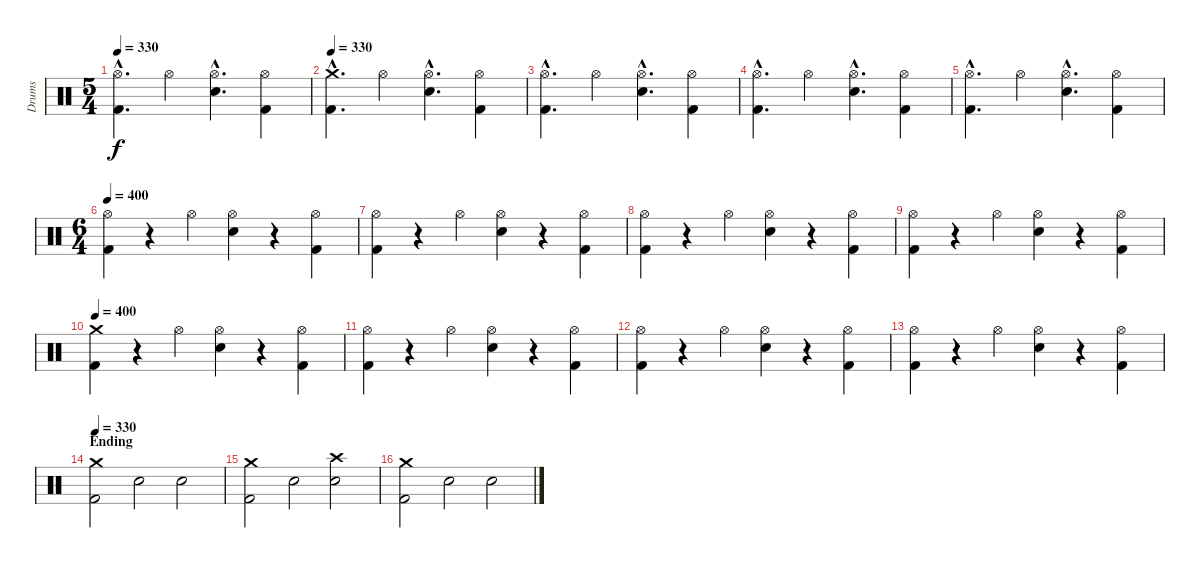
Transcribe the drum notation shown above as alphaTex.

\track ("Drums" "Drums") {instrument percussion}
\staff {score}
\articulation defaults
\ts (5 4)
\tempo 330
\clef neutral
\ks c
("Hi-Hat (open)"{hac} "Kick (hit) 2"{hac}).4{d dy f} "Hi-Hat (open)".4 ("Hi-Hat (open)"{hac} "Electric Snare (hit)"{hac}).4{d} ("Hi-Hat (open)" "Kick (hit) 2").4 |
\tempo 330
("Crash medium (hit)"{hac} "Kick (hit) 2"{hac}).4{d} "Hi-Hat (open)".4 ("Hi-Hat (open)"{hac} "Electric Snare (hit)"{hac}).4{d} ("Hi-Hat (open)" "Kick (hit) 2").4 |
("Hi-Hat (open)"{hac} "Kick (hit) 2"{hac}).4{d} "Hi-Hat (open)".4 ("Hi-Hat (open)"{hac} "Electric Snare (hit)"{hac}).4{d} ("Hi-Hat (open)" "Kick (hit) 2").4 |
("Hi-Hat (open)"{hac} "Kick (hit) 2"{hac}).4{d} "Hi-Hat (open)".4 ("Hi-Hat (open)"{hac} "Electric Snare (hit)"{hac}).4{d} ("Hi-Hat (open)" "Kick (hit) 2").4 |
("Hi-Hat (open)"{hac} "Kick (hit) 2"{hac}).4{d} "Hi-Hat (open)".4 ("Hi-Hat (open)"{hac} "Electric Snare (hit)"{hac}).4{d} ("Hi-Hat (open)" "Kick (hit) 2").4 |
\ts (6 4)
\tempo 400
("Hi-Hat (open)" "Kick (hit) 2").4 r.4 "Hi-Hat (open)".4 ("Hi-Hat (open)" "Electric Snare (hit)").4 r.4 ("Hi-Hat (open)" "Kick (hit) 2").4 |
("Hi-Hat (open)" "Kick (hit) 2").4 r.4 "Hi-Hat (open)".4 ("Hi-Hat (open)" "Electric Snare (hit)").4 r.4 ("Hi-Hat (open)" "Kick (hit) 2").4 |
("Hi-Hat (open)" "Kick (hit) 2").4 r.4 "Hi-Hat (open)".4 ("Hi-Hat (open)" "Electric Snare (hit)").4 r.4 ("Hi-Hat (open)" "Kick (hit) 2").4 |
("Hi-Hat (open)" "Kick (hit) 2").4 r.4 "Hi-Hat (open)".4 ("Hi-Hat (open)" "Electric Snare (hit)").4 r.4 ("Hi-Hat (open)" "Kick (hit) 2").4 |
\tempo 400
("Crash medium (hit)" "Kick (hit) 2").4 r.4 "Hi-Hat (open)".4 ("Hi-Hat (open)" "Electric Snare (hit)").4 r.4 ("Hi-Hat (open)" "Kick (hit) 2").4 |
("Hi-Hat (open)" "Kick (hit) 2").4 r.4 "Hi-Hat (open)".4 ("Hi-Hat (open)" "Electric Snare (hit)").4 r.4 ("Hi-Hat (open)" "Kick (hit) 2").4 |
("Hi-Hat (open)" "Kick (hit) 2").4 r.4 "Hi-Hat (open)".4 ("Hi-Hat (open)" "Electric Snare (hit)").4 r.4 ("Hi-Hat (open)" "Kick (hit) 2").4 |
("Hi-Hat (open)" "Kick (hit) 2").4 r.4 "Hi-Hat (open)".4 ("Hi-Hat (open)" "Electric Snare (hit)").4 r.4 ("Hi-Hat (open)" "Kick (hit) 2").4 |
\section ("" "Ending")
\tempo 330
("Crash medium (hit)" "Kick (hit) 2").2 "Electric Snare (hit)".2 "Electric Snare (hit)".2 |
("Crash medium (hit)" "Kick (hit) 2").2 "Electric Snare (hit)".2 ("Crash high (hit)" "Electric Snare (hit)").2 |
("Crash medium (hit)" "Kick (hit) 2").2 "Electric Snare (hit)".2 "Electric Snare (hit)".2
